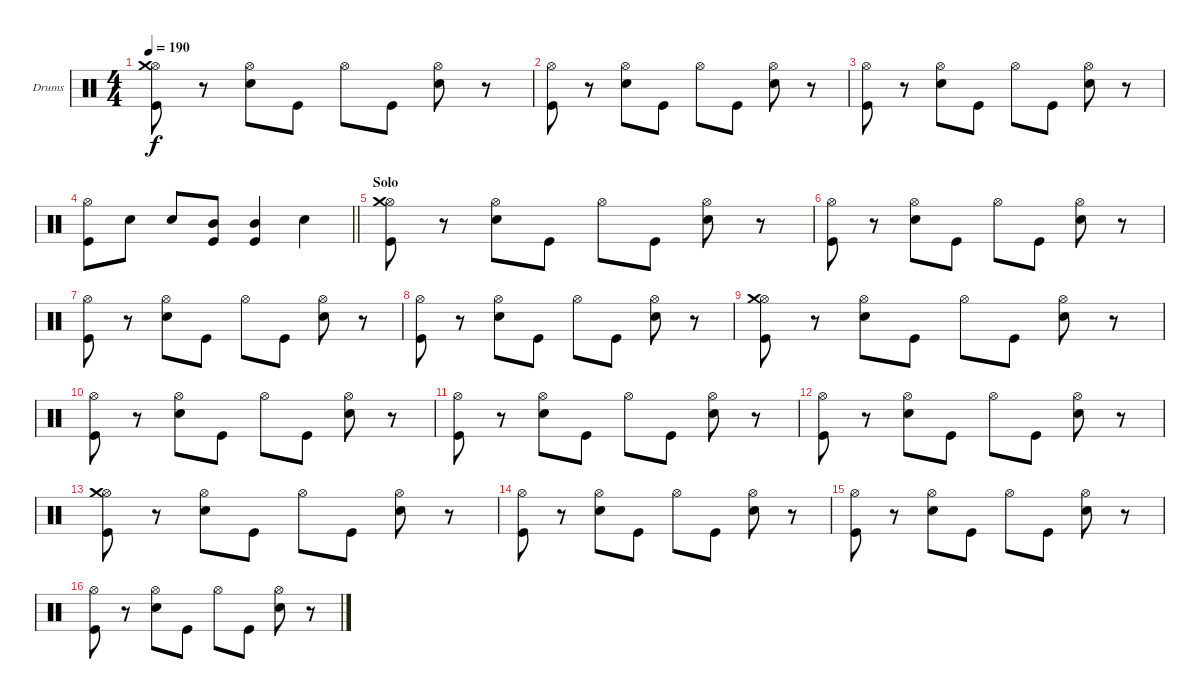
\bracketExtendMode groupsimilarinstruments
\firstSystemTrackNameOrientation horizontal
\otherSystemsTrackNameOrientation horizontal
\track ("Drumkit" "Drums") {instrument percussion}
\staff {score}
\articulation defaults
\ts (4 4)
\tempo 190
\clef neutral
\ks c
("Hi-Hat (open)" "Crash medium (hit)" "Kick (hit)").8{dy f} r.8 ("Hi-Hat (open)" "Snare (hit) 2").8 "Kick (hit)".8 "Hi-Hat (open)".8 "Kick (hit)".8 ("Hi-Hat (open)" "Snare (hit) 2").8 r.8 |
("Hi-Hat (open)" "Kick (hit)").8 r.8 ("Hi-Hat (open)" "Snare (hit) 2").8 "Kick (hit)".8 "Hi-Hat (open)".8 "Kick (hit)".8 ("Hi-Hat (open)" "Snare (hit) 2").8 r.8 |
("Hi-Hat (open)" "Kick (hit)").8 r.8 ("Hi-Hat (open)" "Snare (hit) 2").8 "Kick (hit)".8 "Hi-Hat (open)".8 "Kick (hit)".8 ("Hi-Hat (open)" "Snare (hit) 2").8 r.8 |
\barLineRight lightlight
("Kick (hit)" "Hi-Hat (open)").8 "Snare (hit) 2".8 "Snare (hit) 2".8 ("Mid Tom (hit)" "Kick (hit)").8 ("Kick (hit)" "Mid Tom (hit)").4 "Snare (hit) 2".4 |
\section ("" "Solo")
("Hi-Hat (open)" "Crash medium (hit)" "Kick (hit)").8 r.8 ("Hi-Hat (open)" "Snare (hit) 2").8 "Kick (hit)".8 "Hi-Hat (open)".8 "Kick (hit)".8 ("Hi-Hat (open)" "Snare (hit) 2").8 r.8 |
("Hi-Hat (open)" "Kick (hit)").8 r.8 ("Hi-Hat (open)" "Snare (hit) 2").8 "Kick (hit)".8 "Hi-Hat (open)".8 "Kick (hit)".8 ("Hi-Hat (open)" "Snare (hit) 2").8 r.8 |
("Hi-Hat (open)" "Kick (hit)").8 r.8 ("Hi-Hat (open)" "Snare (hit) 2").8 "Kick (hit)".8 "Hi-Hat (open)".8 "Kick (hit)".8 ("Hi-Hat (open)" "Snare (hit) 2").8 r.8 |
("Hi-Hat (open)" "Kick (hit)").8 r.8 ("Hi-Hat (open)" "Snare (hit) 2").8 "Kick (hit)".8 "Hi-Hat (open)".8 "Kick (hit)".8 ("Hi-Hat (open)" "Snare (hit) 2").8 r.8 |
("Hi-Hat (open)" "Crash medium (hit)" "Kick (hit)").8 r.8 ("Hi-Hat (open)" "Snare (hit) 2").8 "Kick (hit)".8 "Hi-Hat (open)".8 "Kick (hit)".8 ("Hi-Hat (open)" "Snare (hit) 2").8 r.8 |
("Hi-Hat (open)" "Kick (hit)").8 r.8 ("Hi-Hat (open)" "Snare (hit) 2").8 "Kick (hit)".8 "Hi-Hat (open)".8 "Kick (hit)".8 ("Hi-Hat (open)" "Snare (hit) 2").8 r.8 |
("Hi-Hat (open)" "Kick (hit)").8 r.8 ("Hi-Hat (open)" "Snare (hit) 2").8 "Kick (hit)".8 "Hi-Hat (open)".8 "Kick (hit)".8 ("Hi-Hat (open)" "Snare (hit) 2").8 r.8 |
("Hi-Hat (open)" "Kick (hit)").8 r.8 ("Hi-Hat (open)" "Snare (hit) 2").8 "Kick (hit)".8 "Hi-Hat (open)".8 "Kick (hit)".8 ("Hi-Hat (open)" "Snare (hit) 2").8 r.8 |
("Hi-Hat (open)" "Crash medium (hit)" "Kick (hit)").8 r.8 ("Hi-Hat (open)" "Snare (hit) 2").8 "Kick (hit)".8 "Hi-Hat (open)".8 "Kick (hit)".8 ("Hi-Hat (open)" "Snare (hit) 2").8 r.8 |
("Hi-Hat (open)" "Kick (hit)").8 r.8 ("Hi-Hat (open)" "Snare (hit) 2").8 "Kick (hit)".8 "Hi-Hat (open)".8 "Kick (hit)".8 ("Hi-Hat (open)" "Snare (hit) 2").8 r.8 |
("Hi-Hat (open)" "Kick (hit)").8 r.8 ("Hi-Hat (open)" "Snare (hit) 2").8 "Kick (hit)".8 "Hi-Hat (open)".8 "Kick (hit)".8 ("Hi-Hat (open)" "Snare (hit) 2").8 r.8 |
("Hi-Hat (open)" "Kick (hit)").8 r.8 ("Hi-Hat (open)" "Snare (hit) 2").8 "Kick (hit)".8 "Hi-Hat (open)".8 "Kick (hit)".8 ("Hi-Hat (open)" "Snare (hit) 2").8 r.8
